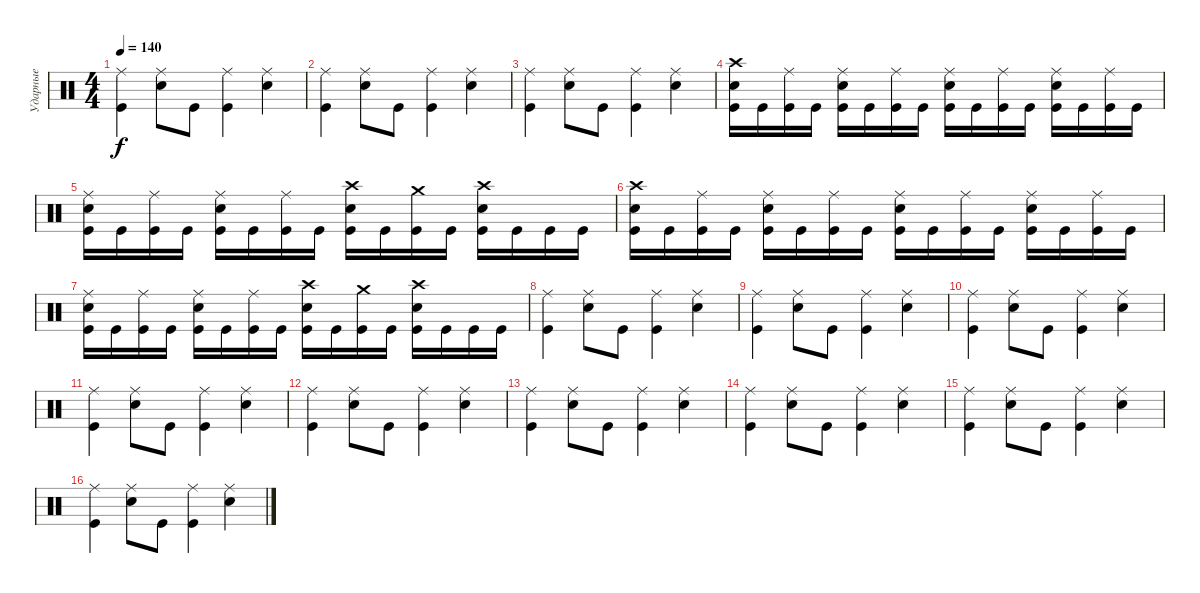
\track ("Ударные" "Ударные") {instrument percussion}
\staff {score}
\articulation defaults
\ts (4 4)
\tempo 140
\clef neutral
\ks c
("Ride (middle)" "Kick (hit)").4{dy f} ("Ride (middle)" "Electric Snare (hit)").8 "Kick (hit)".8 ("Ride (middle)" "Kick (hit)").4 ("Ride (middle)" "Electric Snare (hit)").4 |
("Ride (middle)" "Kick (hit)").4 ("Ride (middle)" "Electric Snare (hit)").8 "Kick (hit)".8 ("Ride (middle)" "Kick (hit)").4 ("Ride (middle)" "Electric Snare (hit)").4 |
("Ride (middle)" "Kick (hit)").4 ("Ride (middle)" "Electric Snare (hit)").8 "Kick (hit)".8 ("Ride (middle)" "Kick (hit)").4 ("Ride (middle)" "Electric Snare (hit)").4 |
("Crash high (hit)" "Electric Snare (hit)" "Kick (hit)").16 "Kick (hit)".16 ("Ride (middle)" "Kick (hit)").16 "Kick (hit)".16 ("Ride (middle)" "Electric Snare (hit)" "Kick (hit)").16 "Kick (hit)".16 ("Ride (middle)" "Kick (hit)").16 "Kick (hit)".16 ("Ride (middle)" "Electric Snare (hit)" "Kick (hit)").16 "Kick (hit)".16 ("Ride (middle)" "Kick (hit)").16 "Kick (hit)".16 ("Ride (middle)" "Electric Snare (hit)" "Kick (hit)").16 "Kick (hit)".16 ("Ride (middle)" "Kick (hit)").16 "Kick (hit)".16 |
("Ride (middle)" "Electric Snare (hit)" "Kick (hit)").16 "Kick (hit)".16 ("Ride (middle)" "Kick (hit)").16 "Kick (hit)".16 ("Ride (middle)" "Electric Snare (hit)" "Kick (hit)").16 "Kick (hit)".16 ("Ride (middle)" "Kick (hit)").16 "Kick (hit)".16 ("Crash high (hit)" "Electric Snare (hit)" "Kick (hit)").16 "Kick (hit)".16 ("Crash medium (hit)" "Kick (hit)").16 "Kick (hit)".16 ("Crash high (hit)" "Electric Snare (hit)" "Kick (hit)").16 "Kick (hit)".16 "Kick (hit)".16 "Kick (hit)".16 |
("Crash high (hit)" "Electric Snare (hit)" "Kick (hit)").16 "Kick (hit)".16 ("Ride (middle)" "Kick (hit)").16 "Kick (hit)".16 ("Ride (middle)" "Electric Snare (hit)" "Kick (hit)").16 "Kick (hit)".16 ("Ride (middle)" "Kick (hit)").16 "Kick (hit)".16 ("Ride (middle)" "Electric Snare (hit)" "Kick (hit)").16 "Kick (hit)".16 ("Ride (middle)" "Kick (hit)").16 "Kick (hit)".16 ("Ride (middle)" "Electric Snare (hit)" "Kick (hit)").16 "Kick (hit)".16 ("Ride (middle)" "Kick (hit)").16 "Kick (hit)".16 |
("Ride (middle)" "Electric Snare (hit)" "Kick (hit)").16 "Kick (hit)".16 ("Ride (middle)" "Kick (hit)").16 "Kick (hit)".16 ("Ride (middle)" "Electric Snare (hit)" "Kick (hit)").16 "Kick (hit)".16 ("Ride (middle)" "Kick (hit)").16 "Kick (hit)".16 ("Crash high (hit)" "Electric Snare (hit)" "Kick (hit)").16 "Kick (hit)".16 ("Crash medium (hit)" "Kick (hit)").16 "Kick (hit)".16 ("Crash high (hit)" "Electric Snare (hit)" "Kick (hit)").16 "Kick (hit)".16 "Kick (hit)".16 "Kick (hit)".16 |
("Ride (middle)" "Kick (hit)").4 ("Ride (middle)" "Electric Snare (hit)").8 "Kick (hit)".8 ("Ride (middle)" "Kick (hit)").4 ("Ride (middle)" "Electric Snare (hit)").4 |
("Ride (middle)" "Kick (hit)").4 ("Ride (middle)" "Electric Snare (hit)").8 "Kick (hit)".8 ("Ride (middle)" "Kick (hit)").4 ("Ride (middle)" "Electric Snare (hit)").4 |
("Ride (middle)" "Kick (hit)").4 ("Ride (middle)" "Electric Snare (hit)").8 "Kick (hit)".8 ("Ride (middle)" "Kick (hit)").4 ("Ride (middle)" "Electric Snare (hit)").4 |
("Ride (middle)" "Kick (hit)").4 ("Ride (middle)" "Electric Snare (hit)").8 "Kick (hit)".8 ("Ride (middle)" "Kick (hit)").4 ("Ride (middle)" "Electric Snare (hit)").4 |
("Ride (middle)" "Kick (hit)").4 ("Ride (middle)" "Electric Snare (hit)").8 "Kick (hit)".8 ("Ride (middle)" "Kick (hit)").4 ("Ride (middle)" "Electric Snare (hit)").4 |
("Ride (middle)" "Kick (hit)").4 ("Ride (middle)" "Electric Snare (hit)").8 "Kick (hit)".8 ("Ride (middle)" "Kick (hit)").4 ("Ride (middle)" "Electric Snare (hit)").4 |
("Ride (middle)" "Kick (hit)").4 ("Ride (middle)" "Electric Snare (hit)").8 "Kick (hit)".8 ("Ride (middle)" "Kick (hit)").4 ("Ride (middle)" "Electric Snare (hit)").4 |
("Ride (middle)" "Kick (hit)").4 ("Ride (middle)" "Electric Snare (hit)").8 "Kick (hit)".8 ("Ride (middle)" "Kick (hit)").4 ("Ride (middle)" "Electric Snare (hit)").4 |
("Ride (middle)" "Kick (hit)").4 ("Ride (middle)" "Electric Snare (hit)").8 "Kick (hit)".8 ("Ride (middle)" "Kick (hit)").4 ("Ride (middle)" "Electric Snare (hit)").4
